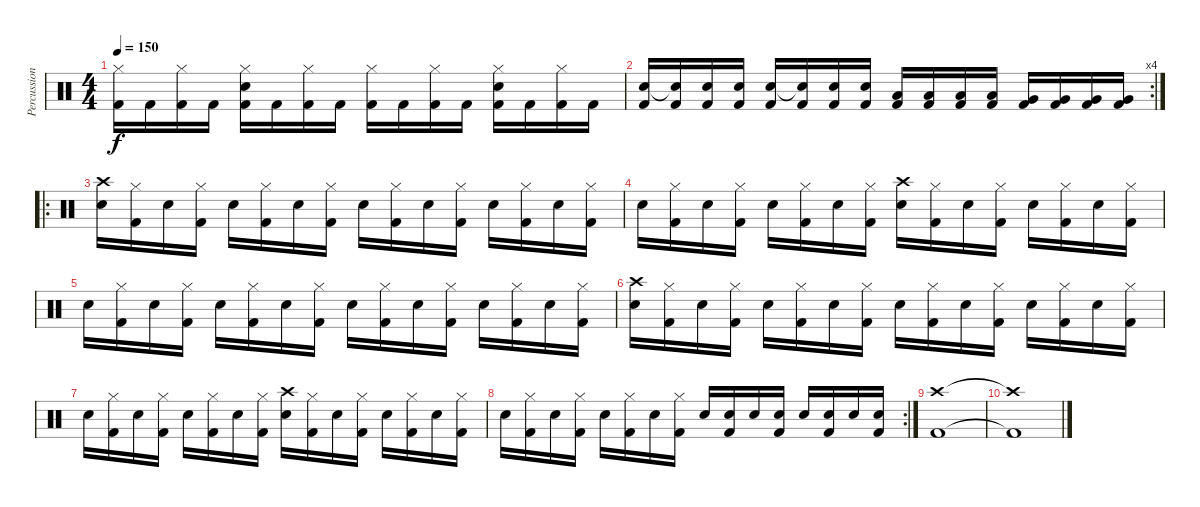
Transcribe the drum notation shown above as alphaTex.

\track ("Percussion" "Percussion") {instrument percussion}
\staff {score}
\articulation defaults
\ts (4 4)
\tempo 150
\clef neutral
\ks c
("Hi-Hat (closed)" "Kick (hit) 2").16{dy f} "Kick (hit) 2".16 ("Hi-Hat (closed)" "Kick (hit) 2").16 "Kick (hit) 2".16 ("Hi-Hat (closed)" "Electric Snare (hit)" "Kick (hit) 2").16 "Kick (hit) 2".16 ("Hi-Hat (closed)" "Kick (hit) 2").16 "Kick (hit) 2".16 ("Hi-Hat (closed)" "Kick (hit) 2").16 "Kick (hit) 2".16 ("Hi-Hat (closed)" "Kick (hit) 2").16 "Kick (hit) 2".16 ("Hi-Hat (closed)" "Electric Snare (hit)" "Kick (hit) 2").16 "Kick (hit) 2".16 ("Hi-Hat (closed)" "Kick (hit) 2").16 "Kick (hit) 2".16 |
\rc 4
("Electric Snare (hit)" "Kick (hit) 2").16 ("Electric Snare (hit)"{t} "Kick (hit) 2").16 ("Electric Snare (hit)" "Kick (hit) 2").16 ("Electric Snare (hit)" "Kick (hit) 2").16 ("Electric Snare (hit)" "Kick (hit) 2").16 ("Electric Snare (hit)"{t} "Kick (hit) 2").16 ("Electric Snare (hit)" "Kick (hit) 2").16 ("Electric Snare (hit)" "Kick (hit) 2").16 ("Low Tom (hit)" "Kick (hit) 2").16 ("Low Tom (hit)" "Kick (hit) 2").16 ("Low Tom (hit)" "Kick (hit) 2").16 ("Low Tom (hit)" "Kick (hit) 2").16 ("Very Low Tom (hit)" "Kick (hit) 2").16 ("Very Low Tom (hit)" "Kick (hit) 2").16 ("Very Low Tom (hit)" "Kick (hit) 2").16 ("Very Low Tom (hit)" "Kick (hit) 2").16 |
\ro
("Crash high (hit)" "Electric Snare (hit)").16 ("Hi-Hat (closed)" "Kick (hit) 2").16 "Electric Snare (hit)".16 ("Hi-Hat (closed)" "Kick (hit) 2").16 "Electric Snare (hit)".16 ("Hi-Hat (closed)" "Kick (hit) 2").16 "Electric Snare (hit)".16 ("Hi-Hat (closed)" "Kick (hit) 2").16 "Electric Snare (hit)".16 ("Hi-Hat (closed)" "Kick (hit) 2").16 "Electric Snare (hit)".16 ("Hi-Hat (closed)" "Kick (hit) 2").16 "Electric Snare (hit)".16 ("Hi-Hat (closed)" "Kick (hit) 2").16 "Electric Snare (hit)".16 ("Hi-Hat (closed)" "Kick (hit) 2").16 |
"Electric Snare (hit)".16 ("Hi-Hat (closed)" "Kick (hit) 2").16 "Electric Snare (hit)".16 ("Hi-Hat (closed)" "Kick (hit) 2").16 "Electric Snare (hit)".16 ("Hi-Hat (closed)" "Kick (hit) 2").16 "Electric Snare (hit)".16 ("Hi-Hat (closed)" "Kick (hit) 2").16 ("Crash high (hit)" "Electric Snare (hit)").16 ("Hi-Hat (closed)" "Kick (hit) 2").16 "Electric Snare (hit)".16 ("Hi-Hat (closed)" "Kick (hit) 2").16 "Electric Snare (hit)".16 ("Hi-Hat (closed)" "Kick (hit) 2").16 "Electric Snare (hit)".16 ("Hi-Hat (closed)" "Kick (hit) 2").16 |
"Electric Snare (hit)".16 ("Hi-Hat (closed)" "Kick (hit) 2").16 "Electric Snare (hit)".16 ("Hi-Hat (closed)" "Kick (hit) 2").16 "Electric Snare (hit)".16 ("Hi-Hat (closed)" "Kick (hit) 2").16 "Electric Snare (hit)".16 ("Hi-Hat (closed)" "Kick (hit) 2").16 "Electric Snare (hit)".16 ("Hi-Hat (closed)" "Kick (hit) 2").16 "Electric Snare (hit)".16 ("Hi-Hat (closed)" "Kick (hit) 2").16 "Electric Snare (hit)".16 ("Hi-Hat (closed)" "Kick (hit) 2").16 "Electric Snare (hit)".16 ("Hi-Hat (closed)" "Kick (hit) 2").16 |
("Crash high (hit)" "Electric Snare (hit)").16 ("Hi-Hat (closed)" "Kick (hit) 2").16 "Electric Snare (hit)".16 ("Hi-Hat (closed)" "Kick (hit) 2").16 "Electric Snare (hit)".16 ("Hi-Hat (closed)" "Kick (hit) 2").16 "Electric Snare (hit)".16 ("Hi-Hat (closed)" "Kick (hit) 2").16 "Electric Snare (hit)".16 ("Hi-Hat (closed)" "Kick (hit) 2").16 "Electric Snare (hit)".16 ("Hi-Hat (closed)" "Kick (hit) 2").16 "Electric Snare (hit)".16 ("Hi-Hat (closed)" "Kick (hit) 2").16 "Electric Snare (hit)".16 ("Hi-Hat (closed)" "Kick (hit) 2").16 |
"Electric Snare (hit)".16 ("Hi-Hat (closed)" "Kick (hit) 2").16 "Electric Snare (hit)".16 ("Hi-Hat (closed)" "Kick (hit) 2").16 "Electric Snare (hit)".16 ("Hi-Hat (closed)" "Kick (hit) 2").16 "Electric Snare (hit)".16 ("Hi-Hat (closed)" "Kick (hit) 2").16 ("Crash high (hit)" "Electric Snare (hit)").16 ("Hi-Hat (closed)" "Kick (hit) 2").16 "Electric Snare (hit)".16 ("Hi-Hat (closed)" "Kick (hit) 2").16 "Electric Snare (hit)".16 ("Hi-Hat (closed)" "Kick (hit) 2").16 "Electric Snare (hit)".16 ("Hi-Hat (closed)" "Kick (hit) 2").16 |
\rc 2 "Electric Snare (hit)".16
("Hi-Hat (closed)" "Kick (hit) 2").16 "Electric Snare (hit)".16 ("Hi-Hat (closed)" "Kick (hit) 2").16 "Electric Snare (hit)".16 ("Hi-Hat (closed)" "Kick (hit) 2").16 "Electric Snare (hit)".16 ("Hi-Hat (closed)" "Kick (hit) 2").16 "Electric Snare (hit)".16 ("Electric Snare (hit)" "Kick (hit) 2").16 "Electric Snare (hit)".16 ("Electric Snare (hit)" "Kick (hit) 2").16 "Electric Snare (hit)".16 ("Electric Snare (hit)" "Kick (hit) 2").16 "Electric Snare (hit)".16 ("Electric Snare (hit)" "Kick (hit) 2").16 |
("Crash high (hit)" "Kick (hit) 2").1 |
("Crash high (hit)"{t} "Kick (hit) 2"{t}).1
